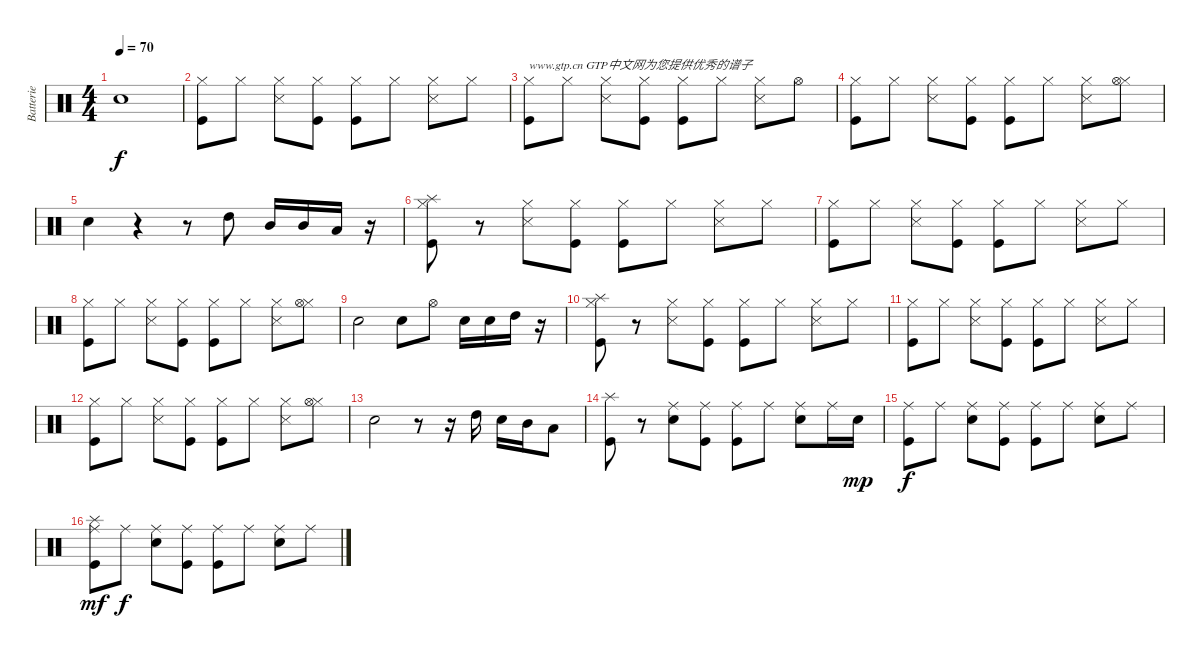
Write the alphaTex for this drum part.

\track ("Batterie" "Batterie") {instrument percussion}
\staff {score}
\articulation defaults
\ts (4 4)
\tempo 70
\clef neutral
\ks c "Snare (hit) 2".1{dy f}
|
("Hi-Hat (closed)" "Kick (hit)").8 "Hi-Hat (closed)".8 ("Hi-Hat (closed)" "Snare (side stick) 3").8 ("Hi-Hat (closed)" "Kick (hit)").8 ("Hi-Hat (closed)" "Kick (hit)").8 "Hi-Hat (closed)".8 ("Hi-Hat (closed)" "Snare (side stick) 3").8 "Hi-Hat (closed)".8 |
("Hi-Hat (closed)" "Kick (hit)").8{txt "www.gtp.cn GTP中文网为您提供优秀的谱子"} "Hi-Hat (closed)".8 ("Hi-Hat (closed)" "Snare (side stick) 3").8 ("Hi-Hat (closed)" "Kick (hit)").8 ("Hi-Hat (closed)" "Kick (hit)").8 "Hi-Hat (closed)".8 ("Hi-Hat (closed)" "Snare (side stick) 3").8 "Hi-Hat (open)".8 |
("Hi-Hat (closed)" "Kick (hit)").8 "Hi-Hat (closed)".8 ("Hi-Hat (closed)" "Snare (side stick) 3").8 ("Hi-Hat (closed)" "Kick (hit)").8 ("Hi-Hat (closed)" "Kick (hit)").8 "Hi-Hat (closed)".8 ("Hi-Hat (closed)" "Snare (side stick) 3").8 ("Hi-Hat (closed)" "Hi-Hat (open)").8 |
"Snare (hit) 2".4 r.4 r.8 "High Tom (hit)".8 "Mid Tom (hit)".16 "Mid Tom (hit)".16 "Low Tom (hit)".16 r.16 |
("Hi-Hat (closed)" "Splash (hit)" "Kick (hit)").8 r.8 ("Hi-Hat (closed)" "Snare (side stick) 3").8 ("Hi-Hat (closed)" "Kick (hit)").8 ("Hi-Hat (closed)" "Kick (hit)").8 "Hi-Hat (closed)".8 ("Hi-Hat (closed)" "Snare (side stick) 3").8 "Hi-Hat (closed)".8 |
("Hi-Hat (closed)" "Kick (hit)").8 "Hi-Hat (closed)".8 ("Hi-Hat (closed)" "Snare (side stick) 3").8 ("Hi-Hat (closed)" "Kick (hit)").8 ("Hi-Hat (closed)" "Kick (hit)").8 "Hi-Hat (closed)".8 ("Hi-Hat (closed)" "Snare (side stick) 3").8 "Hi-Hat (closed)".8 |
("Hi-Hat (closed)" "Kick (hit)").8 "Hi-Hat (closed)".8 ("Hi-Hat (closed)" "Snare (side stick) 3").8 ("Hi-Hat (closed)" "Kick (hit)").8 ("Hi-Hat (closed)" "Kick (hit)").8 "Hi-Hat (closed)".8 ("Hi-Hat (closed)" "Snare (side stick) 3").8 ("Hi-Hat (closed)" "Hi-Hat (open)").8 |
"Snare (hit) 2".2 "Snare (hit) 2".8 "Hi-Hat (open)".8 "Snare (hit) 2".16 "Snare (hit) 2".16 "High Tom (hit)".16 r.16 |
("Hi-Hat (closed)" "Splash (hit)" "Kick (hit)").8 r.8 ("Hi-Hat (closed)" "Snare (side stick) 3").8 ("Hi-Hat (closed)" "Kick (hit)").8 ("Hi-Hat (closed)" "Kick (hit)").8 "Hi-Hat (closed)".8 ("Hi-Hat (closed)" "Snare (side stick) 3").8 "Hi-Hat (closed)".8 |
("Hi-Hat (closed)" "Kick (hit)").8 "Hi-Hat (closed)".8 ("Hi-Hat (closed)" "Snare (side stick) 3").8 ("Hi-Hat (closed)" "Kick (hit)").8 ("Hi-Hat (closed)" "Kick (hit)").8 "Hi-Hat (closed)".8 ("Hi-Hat (closed)" "Snare (side stick) 3").8 "Hi-Hat (closed)".8 |
("Hi-Hat (closed)" "Kick (hit)").8 "Hi-Hat (closed)".8 ("Hi-Hat (closed)" "Snare (side stick) 3").8 ("Hi-Hat (closed)" "Kick (hit)").8 ("Hi-Hat (closed)" "Kick (hit)").8 "Hi-Hat (closed)".8 ("Hi-Hat (closed)" "Snare (side stick) 3").8 ("Hi-Hat (closed)" "Hi-Hat (open)").8 |
"Snare (hit) 2".2 r.8 r.16 "High Tom (hit)".16 "Snare (hit) 2".16 "Mid Tom (hit)".16 "Low Tom (hit)".8 |
("Splash (hit)" "Kick (hit)").8 r.8 ("Ride (middle)" "Snare (hit) 2").8 ("Ride (middle)" "Kick (hit)").8 ("Ride (middle)" "Kick (hit)").8 "Ride (middle)".8 ("Ride (middle)" "Snare (hit) 2").8 "Ride (middle)".16 "Snare (hit) 2".16{dy mp} |
("Ride (middle)" "Kick (hit)").8{dy f} "Ride (middle)".8 ("Ride (middle)" "Snare (hit) 2").8 ("Ride (middle)" "Kick (hit)").8 ("Ride (middle)" "Kick (hit)").8 "Ride (middle)".8 ("Ride (middle)" "Snare (hit) 2").8 "Ride (middle)".8 |
("Ride (middle)" "Splash (hit)" "Kick (hit)").8{dy mf} "Ride (middle)".8{dy f} ("Ride (middle)" "Snare (hit) 2").8 ("Ride (middle)" "Kick (hit)").8 ("Ride (middle)" "Kick (hit)").8 "Ride (middle)".8 ("Ride (middle)" "Snare (hit) 2").8 "Ride (middle)".8
